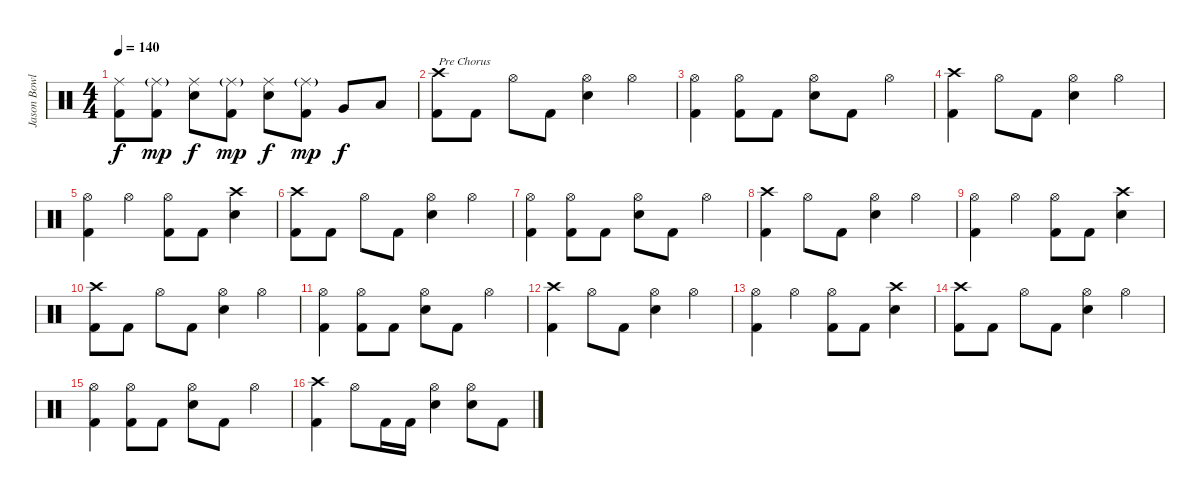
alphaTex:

\track ("Jason Bowld" "Jason Bowl") {instrument percussion}
\staff {score}
\articulation defaults
\ts (4 4)
\tempo 140
\clef neutral
\ks c
("Ride (middle)" "Kick (hit) 2").8{dy f} ("Ride (middle)"{g} "Kick (hit) 2").8{dy mp} ("Ride (middle)" "Snare (hit) 2").8{dy f} ("Ride (middle)"{g} "Kick (hit) 2").8{dy mp} ("Ride (middle)" "Snare (hit) 2").8{dy f} ("Ride (middle)"{g} "Kick (hit) 2").8{dy mp} "Very Low Tom (hit)".8{dy f} "Low Tom (hit)".8 |
("Crash high (hit)" "Kick (hit) 2").8{txt "Pre Chorus"} "Kick (hit) 2".8 "Hi-Hat (open)".8 "Kick (hit) 2".8 ("Hi-Hat (open)" "Snare (hit) 2").4 "Hi-Hat (open)".4 |
("Hi-Hat (open)" "Kick (hit) 2").4 ("Hi-Hat (open)" "Kick (hit) 2").8 "Kick (hit) 2".8 ("Hi-Hat (open)" "Snare (hit) 2").8 "Kick (hit) 2".8 "Hi-Hat (open)".4 |
("Crash high (hit)" "Kick (hit) 2").4 "Hi-Hat (open)".8 "Kick (hit) 2".8 ("Hi-Hat (open)" "Snare (hit) 2").4 "Hi-Hat (open)".4 |
("Hi-Hat (open)" "Kick (hit) 2").4 "Hi-Hat (open)".4 ("Hi-Hat (open)" "Kick (hit) 2").8 "Kick (hit) 2".8 ("Crash high (hit)" "Snare (hit) 2").4 |
("Crash high (hit)" "Kick (hit) 2").8 "Kick (hit) 2".8 "Hi-Hat (open)".8 "Kick (hit) 2".8 ("Hi-Hat (open)" "Snare (hit) 2").4 "Hi-Hat (open)".4 |
("Hi-Hat (open)" "Kick (hit) 2").4 ("Hi-Hat (open)" "Kick (hit) 2").8 "Kick (hit) 2".8 ("Hi-Hat (open)" "Snare (hit) 2").8 "Kick (hit) 2".8 "Hi-Hat (open)".4 |
("Crash high (hit)" "Kick (hit) 2").4 "Hi-Hat (open)".8 "Kick (hit) 2".8 ("Hi-Hat (open)" "Snare (hit) 2").4 "Hi-Hat (open)".4 |
("Hi-Hat (open)" "Kick (hit) 2").4 "Hi-Hat (open)".4 ("Hi-Hat (open)" "Kick (hit) 2").8 "Kick (hit) 2".8 ("Crash high (hit)" "Snare (hit) 2").4 |
("Crash high (hit)" "Kick (hit) 2").8 "Kick (hit) 2".8 "Hi-Hat (open)".8 "Kick (hit) 2".8 ("Hi-Hat (open)" "Snare (hit) 2").4 "Hi-Hat (open)".4 |
("Hi-Hat (open)" "Kick (hit) 2").4 ("Hi-Hat (open)" "Kick (hit) 2").8 "Kick (hit) 2".8 ("Hi-Hat (open)" "Snare (hit) 2").8 "Kick (hit) 2".8 "Hi-Hat (open)".4 |
("Crash high (hit)" "Kick (hit) 2").4 "Hi-Hat (open)".8 "Kick (hit) 2".8 ("Hi-Hat (open)" "Snare (hit) 2").4 "Hi-Hat (open)".4 |
("Hi-Hat (open)" "Kick (hit) 2").4 "Hi-Hat (open)".4 ("Hi-Hat (open)" "Kick (hit) 2").8 "Kick (hit) 2".8 ("Crash high (hit)" "Snare (hit) 2").4 |
("Crash high (hit)" "Kick (hit) 2").8 "Kick (hit) 2".8 "Hi-Hat (open)".8 "Kick (hit) 2".8 ("Hi-Hat (open)" "Snare (hit) 2").4 "Hi-Hat (open)".4 |
("Hi-Hat (open)" "Kick (hit) 2").4 ("Hi-Hat (open)" "Kick (hit) 2").8 "Kick (hit) 2".8 ("Hi-Hat (open)" "Snare (hit) 2").8 "Kick (hit) 2".8 "Hi-Hat (open)".4 |
("Crash high (hit)" "Kick (hit) 2").4 "Hi-Hat (open)".8 "Kick (hit) 2".16 "Kick (hit) 2".16 ("Hi-Hat (open)" "Snare (hit) 2").4 ("Hi-Hat (open)" "Snare (hit) 2").8 "Kick (hit) 2".8
